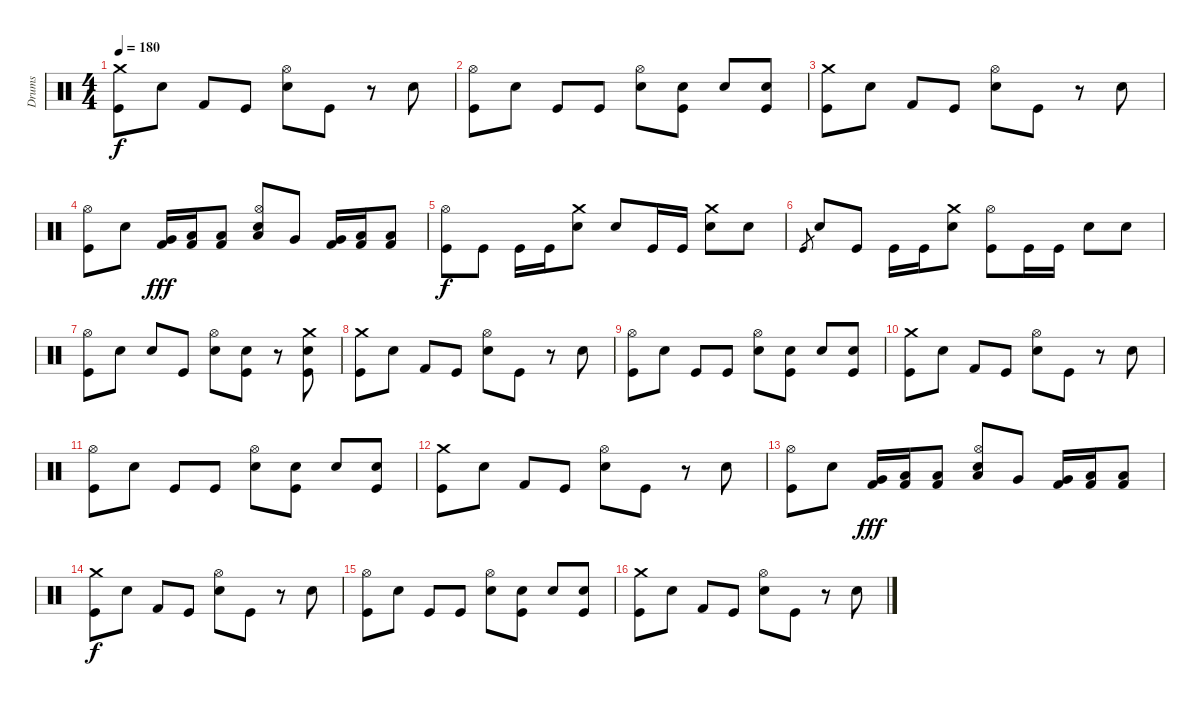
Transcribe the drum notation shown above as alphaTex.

\track ("Drums" "Drums") {instrument percussion}
\staff {score}
\articulation defaults
\ts (4 4)
\tempo 180
\clef neutral
\ks c
("Crash medium (hit)" "Kick (hit)").8{dy f} "Snare (hit) 2".8 "Kick (hit) 2".8 "Kick (hit)".8 ("Hi-Hat (open)" "Snare (hit) 2").8 "Kick (hit)".8 r.8 "Snare (hit) 2".8 |
("Hi-Hat (open)" "Kick (hit)").8 "Snare (hit) 2".8 "Kick (hit)".8 "Kick (hit)".8 ("Hi-Hat (open)" "Snare (hit) 2").8 ("Electric Snare (hit)" "Kick (hit)").8 "Electric Snare (hit)".8 ("Electric Snare (hit)" "Kick (hit)").8 |
("Crash medium (hit)" "Kick (hit)").8 "Snare (hit) 2".8 "Kick (hit) 2".8 "Kick (hit)".8 ("Hi-Hat (open)" "Snare (hit) 2").8 "Kick (hit)".8 r.8 "Snare (hit) 2".8 |
("Hi-Hat (open)" "Kick (hit)").8 "Snare (hit) 2".8 ("Very Low Tom (hit)" "Kick (hit) 2").16{dy fff} ("Low Floor Tom (hit)" "Kick (hit) 2").16 ("Low Floor Tom (hit)" "Kick (hit) 2").8 ("Hi-Hat (open)" "Low Tom (hit)" "Snare (hit) 2").8 "Very Low Tom (hit)".8 ("Very Low Tom (hit)" "Kick (hit) 2").16 ("Low Floor Tom (hit)" "Kick (hit) 2").16 ("Low Floor Tom (hit)" "Kick (hit) 2").8 |
("Hi-Hat (open)" "Kick (hit)").8{dy f} "Kick (hit)".8 "Kick (hit)".16 "Kick (hit)".16 ("Crash medium (hit)" "Snare (hit) 2").8 "Electric Snare (hit)".8 "Kick (hit)".16 "Kick (hit)".16 ("Crash medium (hit)" "Snare (hit) 2").8 "Electric Snare (hit)".8 |
"Kick (hit)".8{gr} "Electric Snare (hit)".8 "Kick (hit)".8 "Kick (hit)".16 "Kick (hit)".16 ("Crash medium (hit)" "Snare (hit) 2").8 ("Hi-Hat (open)" "Kick (hit)").8 "Kick (hit)".16 "Kick (hit)".16 "Electric Snare (hit)".8 "Electric Snare (hit)".8 |
("Hi-Hat (open)" "Kick (hit)").8 "Snare (hit) 2".8 "Electric Snare (hit)".8 "Kick (hit)".8 ("Hi-Hat (open)" "Snare (hit) 2").8 ("Electric Snare (hit)" "Kick (hit)").8 r.8 ("Crash medium (hit)" "Electric Snare (hit)" "Kick (hit)").8 |
("Crash medium (hit)" "Kick (hit)").8 "Snare (hit) 2".8 "Kick (hit) 2".8 "Kick (hit)".8 ("Hi-Hat (open)" "Snare (hit) 2").8 "Kick (hit)".8 r.8 "Snare (hit) 2".8 |
("Hi-Hat (open)" "Kick (hit)").8 "Snare (hit) 2".8 "Kick (hit)".8 "Kick (hit)".8 ("Hi-Hat (open)" "Snare (hit) 2").8 ("Electric Snare (hit)" "Kick (hit)").8 "Electric Snare (hit)".8 ("Electric Snare (hit)" "Kick (hit)").8 |
("Crash medium (hit)" "Kick (hit)").8 "Snare (hit) 2".8 "Kick (hit) 2".8 "Kick (hit)".8 ("Hi-Hat (open)" "Snare (hit) 2").8 "Kick (hit)".8 r.8 "Snare (hit) 2".8 |
("Hi-Hat (open)" "Kick (hit)").8 "Snare (hit) 2".8 "Kick (hit)".8 "Kick (hit)".8 ("Hi-Hat (open)" "Snare (hit) 2").8 ("Electric Snare (hit)" "Kick (hit)").8 "Electric Snare (hit)".8 ("Electric Snare (hit)" "Kick (hit)").8 |
("Crash medium (hit)" "Kick (hit)").8 "Snare (hit) 2".8 "Kick (hit) 2".8 "Kick (hit)".8 ("Hi-Hat (open)" "Snare (hit) 2").8 "Kick (hit)".8 r.8 "Snare (hit) 2".8 |
("Hi-Hat (open)" "Kick (hit)").8 "Snare (hit) 2".8 ("Very Low Tom (hit)" "Kick (hit) 2").16{dy fff} ("Low Floor Tom (hit)" "Kick (hit) 2").16 ("Low Floor Tom (hit)" "Kick (hit) 2").8 ("Hi-Hat (open)" "Low Tom (hit)" "Snare (hit) 2").8 "Very Low Tom (hit)".8 ("Very Low Tom (hit)" "Kick (hit) 2").16 ("Low Floor Tom (hit)" "Kick (hit) 2").16 ("Low Floor Tom (hit)" "Kick (hit) 2").8 |
("Crash medium (hit)" "Kick (hit)").8{dy f} "Snare (hit) 2".8 "Kick (hit) 2".8 "Kick (hit)".8 ("Hi-Hat (open)" "Snare (hit) 2").8 "Kick (hit)".8 r.8 "Snare (hit) 2".8 |
("Hi-Hat (open)" "Kick (hit)").8 "Snare (hit) 2".8 "Kick (hit)".8 "Kick (hit)".8 ("Hi-Hat (open)" "Snare (hit) 2").8 ("Electric Snare (hit)" "Kick (hit)").8 "Electric Snare (hit)".8 ("Electric Snare (hit)" "Kick (hit)").8 |
("Crash medium (hit)" "Kick (hit)").8 "Snare (hit) 2".8 "Kick (hit) 2".8 "Kick (hit)".8 ("Hi-Hat (open)" "Snare (hit) 2").8 "Kick (hit)".8 r.8 "Snare (hit) 2".8
